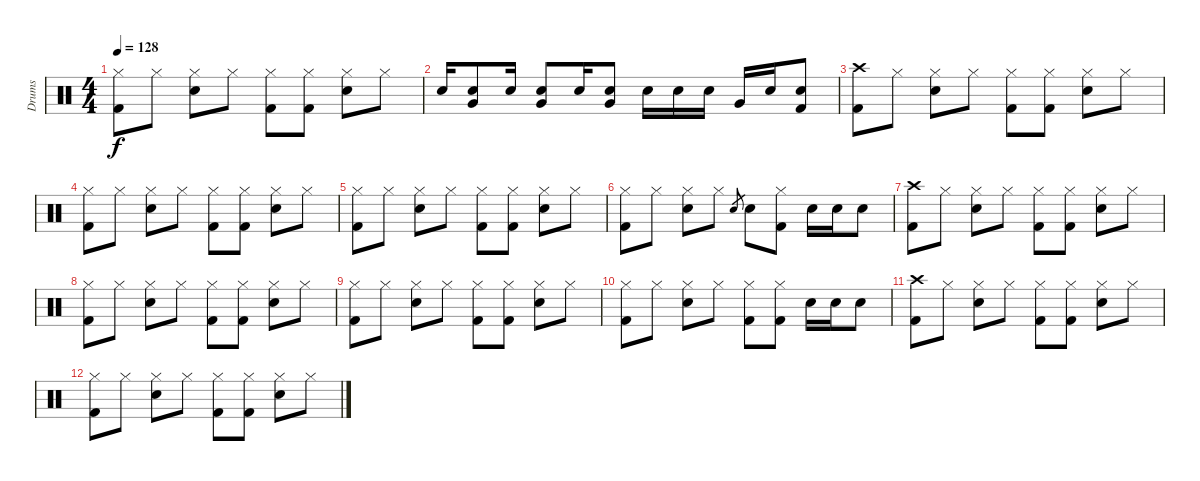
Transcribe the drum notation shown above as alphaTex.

\track ("Drums" "Drums") {instrument percussion}
\staff {score}
\articulation defaults
\ts (4 4)
\tempo 128
\clef neutral
\ks c
("Hi-Hat (closed)" "Kick (hit) 2").8{dy f} "Hi-Hat (closed)".8 ("Hi-Hat (closed)" "Snare (hit) 2").8 "Hi-Hat (closed)".8 ("Hi-Hat (closed)" "Kick (hit) 2").8 ("Hi-Hat (closed)" "Kick (hit) 2").8 ("Hi-Hat (closed)" "Snare (hit) 2").8 "Hi-Hat (closed)".8 |
"Snare (hit) 2".16 ("Snare (hit) 2" "Very Low Tom (hit)").8 "Snare (hit) 2".16 ("Snare (hit) 2" "Very Low Tom (hit)").8 "Snare (hit) 2".16 ("Snare (hit) 2" "Very Low Tom (hit)").8 "Snare (hit) 2".16 "Snare (hit) 2".16 "Snare (hit) 2".16 "Very Low Tom (hit)".16 "Snare (hit) 2".16 ("Snare (hit) 2" "Kick (hit) 2").8 |
("Crash high (hit)" "Kick (hit) 2").8 "Hi-Hat (closed)".8 ("Hi-Hat (closed)" "Snare (hit) 2").8 "Hi-Hat (closed)".8 ("Hi-Hat (closed)" "Kick (hit) 2").8 ("Hi-Hat (closed)" "Kick (hit) 2").8 ("Hi-Hat (closed)" "Snare (hit) 2").8 "Hi-Hat (closed)".8 |
("Hi-Hat (closed)" "Kick (hit) 2").8 "Hi-Hat (closed)".8 ("Hi-Hat (closed)" "Snare (hit) 2").8 "Hi-Hat (closed)".8 ("Hi-Hat (closed)" "Kick (hit) 2").8 ("Hi-Hat (closed)" "Kick (hit) 2").8 ("Hi-Hat (closed)" "Snare (hit) 2").8 "Hi-Hat (closed)".8 |
("Hi-Hat (closed)" "Kick (hit) 2").8 "Hi-Hat (closed)".8 ("Hi-Hat (closed)" "Snare (hit) 2").8 "Hi-Hat (closed)".8 ("Hi-Hat (closed)" "Kick (hit) 2").8 ("Hi-Hat (closed)" "Kick (hit) 2").8 ("Hi-Hat (closed)" "Snare (hit) 2").8 "Hi-Hat (closed)".8 |
("Hi-Hat (closed)" "Kick (hit) 2").8 "Hi-Hat (closed)".8 ("Hi-Hat (closed)" "Snare (hit) 2").8 "Hi-Hat (closed)".8 "Snare (hit) 2".8{gr} "Snare (hit) 2".8 ("Hi-Hat (closed)" "Kick (hit) 2").8 "Snare (hit) 2".16 "Snare (hit) 2".16 "Snare (hit) 2".8 |
("Crash high (hit)" "Kick (hit) 2").8 "Hi-Hat (closed)".8 ("Hi-Hat (closed)" "Snare (hit) 2").8 "Hi-Hat (closed)".8 ("Hi-Hat (closed)" "Kick (hit) 2").8 ("Hi-Hat (closed)" "Kick (hit) 2").8 ("Hi-Hat (closed)" "Snare (hit) 2").8 "Hi-Hat (closed)".8 |
("Hi-Hat (closed)" "Kick (hit) 2").8 "Hi-Hat (closed)".8 ("Hi-Hat (closed)" "Snare (hit) 2").8 "Hi-Hat (closed)".8 ("Hi-Hat (closed)" "Kick (hit) 2").8 ("Hi-Hat (closed)" "Kick (hit) 2").8 ("Hi-Hat (closed)" "Snare (hit) 2").8 "Hi-Hat (closed)".8 |
("Hi-Hat (closed)" "Kick (hit) 2").8 "Hi-Hat (closed)".8 ("Hi-Hat (closed)" "Snare (hit) 2").8 "Hi-Hat (closed)".8 ("Hi-Hat (closed)" "Kick (hit) 2").8 ("Hi-Hat (closed)" "Kick (hit) 2").8 ("Hi-Hat (closed)" "Snare (hit) 2").8 "Hi-Hat (closed)".8 |
("Hi-Hat (closed)" "Kick (hit) 2").8 "Hi-Hat (closed)".8 ("Hi-Hat (closed)" "Snare (hit) 2").8 "Hi-Hat (closed)".8 ("Hi-Hat (closed)" "Kick (hit) 2").8 ("Hi-Hat (closed)" "Kick (hit) 2").8 "Snare (hit) 2".16 "Snare (hit) 2".16 "Snare (hit) 2".8 |
("Crash high (hit)" "Kick (hit) 2").8 "Hi-Hat (closed)".8 ("Hi-Hat (closed)" "Snare (hit) 2").8 "Hi-Hat (closed)".8 ("Hi-Hat (closed)" "Kick (hit) 2").8 ("Hi-Hat (closed)" "Kick (hit) 2").8 ("Hi-Hat (closed)" "Snare (hit) 2").8 "Hi-Hat (closed)".8 |
("Hi-Hat (closed)" "Kick (hit) 2").8 "Hi-Hat (closed)".8 ("Hi-Hat (closed)" "Snare (hit) 2").8 "Hi-Hat (closed)".8 ("Hi-Hat (closed)" "Kick (hit) 2").8 ("Hi-Hat (closed)" "Kick (hit) 2").8 ("Hi-Hat (closed)" "Snare (hit) 2").8 "Hi-Hat (closed)".8
